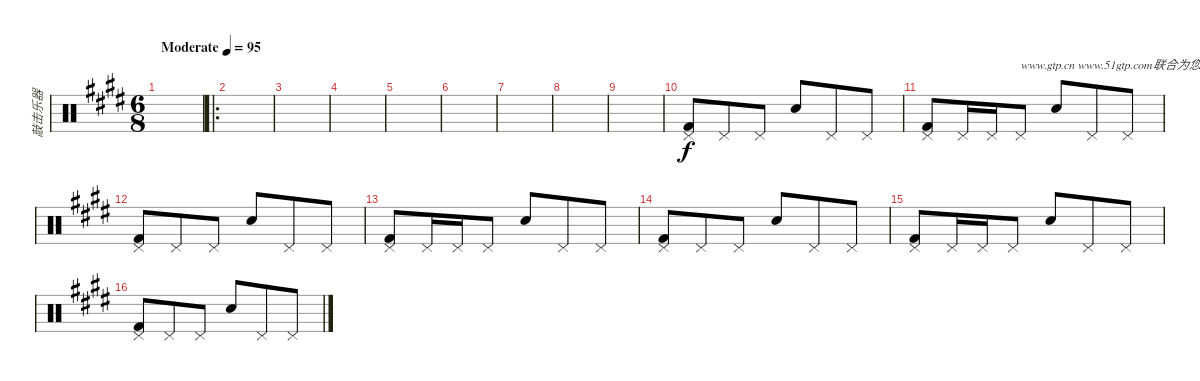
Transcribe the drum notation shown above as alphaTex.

\track ("敲击乐器" "敲击乐器") {instrument percussion}
\staff {score}
\articulation defaults
\ts (6 8)
\tempo (95 "Moderate")
\clef neutral
\ks e
|
\ro
|
|
|
|
|
|
|
|
("Pedal Hi-Hat (hit)" "Kick (hit) 2").8 "Pedal Hi-Hat (hit)".8 "Pedal Hi-Hat (hit)".8 "Snare (hit) 2".8 "Pedal Hi-Hat (hit)".8 "Pedal Hi-Hat (hit)".8 |
("Pedal Hi-Hat (hit)" "Kick (hit) 2").8 "Pedal Hi-Hat (hit)".16 "Pedal Hi-Hat (hit)".16 "Pedal Hi-Hat (hit)".8{txt "www.gtp.cn www.51gtp.com联合为您提供优秀的GTP!"} "Snare (hit) 2".8 "Pedal Hi-Hat (hit)".8 "Pedal Hi-Hat (hit)".8 |
("Pedal Hi-Hat (hit)" "Kick (hit) 2").8 "Pedal Hi-Hat (hit)".8 "Pedal Hi-Hat (hit)".8 "Snare (hit) 2".8 "Pedal Hi-Hat (hit)".8 "Pedal Hi-Hat (hit)".8 |
("Pedal Hi-Hat (hit)" "Kick (hit) 2").8 "Pedal Hi-Hat (hit)".16 "Pedal Hi-Hat (hit)".16 "Pedal Hi-Hat (hit)".8 "Snare (hit) 2".8 "Pedal Hi-Hat (hit)".8 "Pedal Hi-Hat (hit)".8 |
("Pedal Hi-Hat (hit)" "Kick (hit) 2").8 "Pedal Hi-Hat (hit)".8 "Pedal Hi-Hat (hit)".8 "Snare (hit) 2".8 "Pedal Hi-Hat (hit)".8 "Pedal Hi-Hat (hit)".8 |
("Pedal Hi-Hat (hit)" "Kick (hit) 2").8 "Pedal Hi-Hat (hit)".16 "Pedal Hi-Hat (hit)".16 "Pedal Hi-Hat (hit)".8 "Snare (hit) 2".8 "Pedal Hi-Hat (hit)".8 "Pedal Hi-Hat (hit)".8 |
("Pedal Hi-Hat (hit)" "Kick (hit) 2").8 "Pedal Hi-Hat (hit)".8 "Pedal Hi-Hat (hit)".8 "Snare (hit) 2".8 "Pedal Hi-Hat (hit)".8 "Pedal Hi-Hat (hit)".8
